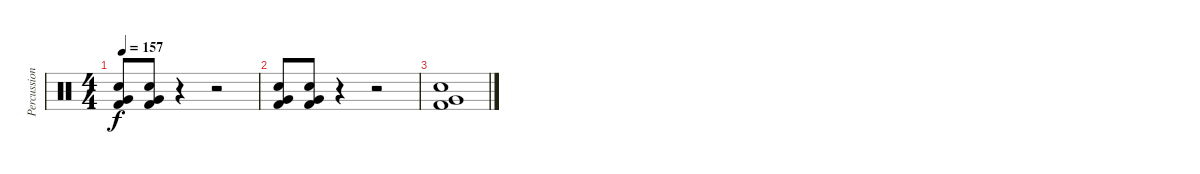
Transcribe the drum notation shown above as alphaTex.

\track ("Percussion" "Percussion") {instrument percussion}
\staff {score}
\articulation defaults
\ts (4 4)
\tempo 157
\clef neutral
\ks c
("Very Low Tom (hit)" "Snare (hit) 2" "Kick (hit) 2").8{dy f} ("Very Low Tom (hit)" "Snare (hit) 2" "Kick (hit) 2").8 r.4 r.2 |
("Very Low Tom (hit)" "Snare (hit) 2" "Kick (hit) 2").8 ("Very Low Tom (hit)" "Snare (hit) 2" "Kick (hit) 2").8 r.4 r.2 |
("Very Low Tom (hit)" "Snare (hit) 2" "Kick (hit) 2").1
